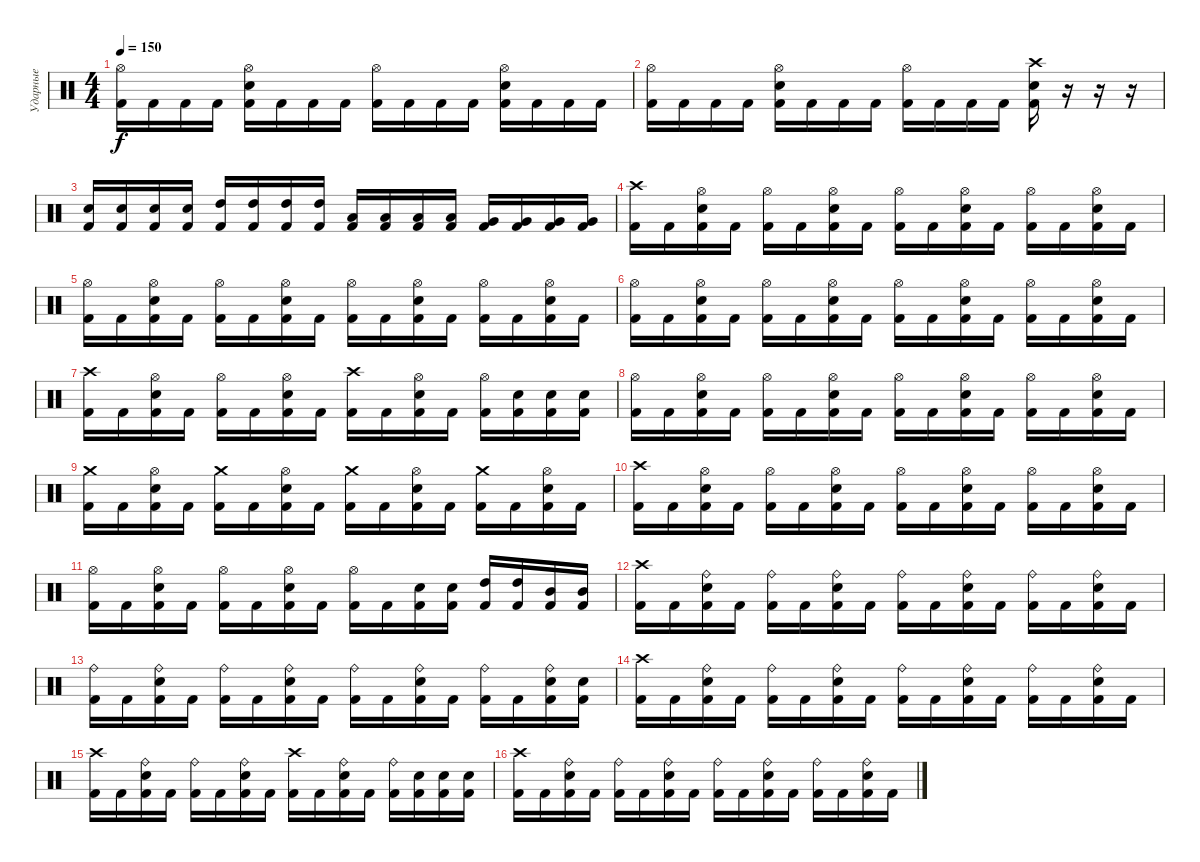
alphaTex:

\track ("Ударные" "Ударные") {instrument percussion}
\staff {score}
\articulation defaults
\ts (4 4)
\tempo 150
\clef neutral
\ks c
("Hi-Hat (open)" "Kick (hit) 2").16{dy f} "Kick (hit) 2".16 "Kick (hit) 2".16 "Kick (hit) 2".16 ("Hi-Hat (open)" "Electric Snare (hit)" "Kick (hit) 2").16 "Kick (hit) 2".16 "Kick (hit) 2".16 "Kick (hit) 2".16 ("Hi-Hat (open)" "Kick (hit) 2").16 "Kick (hit) 2".16 "Kick (hit) 2".16 "Kick (hit) 2".16 ("Hi-Hat (open)" "Electric Snare (hit)" "Kick (hit) 2").16 "Kick (hit) 2".16 "Kick (hit) 2".16 "Kick (hit) 2".16 |
("Hi-Hat (open)" "Kick (hit) 2").16 "Kick (hit) 2".16 "Kick (hit) 2".16 "Kick (hit) 2".16 ("Hi-Hat (open)" "Electric Snare (hit)" "Kick (hit) 2").16 "Kick (hit) 2".16 "Kick (hit) 2".16 "Kick (hit) 2".16 ("Hi-Hat (open)" "Kick (hit) 2").16 "Kick (hit) 2".16 "Kick (hit) 2".16 "Kick (hit) 2".16 ("Crash high (hit)" "Electric Snare (hit)" "Kick (hit) 2").16 r.16 r.16 r.16 |
("Electric Snare (hit)" "Kick (hit) 2").16 ("Electric Snare (hit)" "Kick (hit) 2").16 ("Electric Snare (hit)" "Kick (hit) 2").16 ("Electric Snare (hit)" "Kick (hit) 2").16 ("High Tom (hit)" "Kick (hit) 2").16 ("High Tom (hit)" "Kick (hit) 2").16 ("High Tom (hit)" "Kick (hit) 2").16 ("High Tom (hit)" "Kick (hit) 2").16 ("Low Tom (hit)" "Kick (hit) 2").16 ("Low Tom (hit)" "Kick (hit) 2").16 ("Low Tom (hit)" "Kick (hit) 2").16 ("Low Tom (hit)" "Kick (hit) 2").16 ("Very Low Tom (hit)" "Kick (hit) 2").16 ("Very Low Tom (hit)" "Kick (hit) 2").16 ("Very Low Tom (hit)" "Kick (hit) 2").16 ("Very Low Tom (hit)" "Kick (hit) 2").16 |
("Crash high (hit)" "Kick (hit) 2").16 "Kick (hit) 2".16 ("Hi-Hat (open)" "Electric Snare (hit)" "Kick (hit) 2").16 "Kick (hit) 2".16 ("Hi-Hat (open)" "Kick (hit) 2").16 "Kick (hit) 2".16 ("Hi-Hat (open)" "Electric Snare (hit)" "Kick (hit) 2").16 "Kick (hit) 2".16 ("Hi-Hat (open)" "Kick (hit) 2").16 "Kick (hit) 2".16 ("Hi-Hat (open)" "Electric Snare (hit)" "Kick (hit) 2").16 "Kick (hit) 2".16 ("Hi-Hat (open)" "Kick (hit) 2").16 "Kick (hit) 2".16 ("Hi-Hat (open)" "Electric Snare (hit)" "Kick (hit) 2").16 "Kick (hit) 2".16 |
("Hi-Hat (open)" "Kick (hit) 2").16 "Kick (hit) 2".16 ("Hi-Hat (open)" "Electric Snare (hit)" "Kick (hit) 2").16 "Kick (hit) 2".16 ("Hi-Hat (open)" "Kick (hit) 2").16 "Kick (hit) 2".16 ("Hi-Hat (open)" "Electric Snare (hit)" "Kick (hit) 2").16 "Kick (hit) 2".16 ("Hi-Hat (open)" "Kick (hit) 2").16 "Kick (hit) 2".16 ("Hi-Hat (open)" "Electric Snare (hit)" "Kick (hit) 2").16 "Kick (hit) 2".16 ("Hi-Hat (open)" "Kick (hit) 2").16 "Kick (hit) 2".16 ("Hi-Hat (open)" "Electric Snare (hit)" "Kick (hit) 2").16 "Kick (hit) 2".16 |
("Hi-Hat (open)" "Kick (hit) 2").16 "Kick (hit) 2".16 ("Hi-Hat (open)" "Electric Snare (hit)" "Kick (hit) 2").16 "Kick (hit) 2".16 ("Hi-Hat (open)" "Kick (hit) 2").16 "Kick (hit) 2".16 ("Hi-Hat (open)" "Electric Snare (hit)" "Kick (hit) 2").16 "Kick (hit) 2".16 ("Hi-Hat (open)" "Kick (hit) 2").16 "Kick (hit) 2".16 ("Hi-Hat (open)" "Electric Snare (hit)" "Kick (hit) 2").16 "Kick (hit) 2".16 ("Hi-Hat (open)" "Kick (hit) 2").16 "Kick (hit) 2".16 ("Hi-Hat (open)" "Electric Snare (hit)" "Kick (hit) 2").16 "Kick (hit) 2".16 |
("Crash high (hit)" "Kick (hit) 2").16 "Kick (hit) 2".16 ("Hi-Hat (open)" "Electric Snare (hit)" "Kick (hit) 2").16 "Kick (hit) 2".16 ("Hi-Hat (open)" "Kick (hit) 2").16 "Kick (hit) 2".16 ("Hi-Hat (open)" "Electric Snare (hit)" "Kick (hit) 2").16 "Kick (hit) 2".16 ("Crash high (hit)" "Kick (hit) 2").16 "Kick (hit) 2".16 ("Hi-Hat (open)" "Electric Snare (hit)" "Kick (hit) 2").16 "Kick (hit) 2".16 ("Hi-Hat (open)" "Kick (hit) 2").16 ("Electric Snare (hit)" "Kick (hit) 2").16 ("Electric Snare (hit)" "Kick (hit) 2").16 ("Electric Snare (hit)" "Kick (hit) 2").16 |
("Hi-Hat (open)" "Kick (hit) 2").16 "Kick (hit) 2".16 ("Hi-Hat (open)" "Electric Snare (hit)" "Kick (hit) 2").16 "Kick (hit) 2".16 ("Hi-Hat (open)" "Kick (hit) 2").16 "Kick (hit) 2".16 ("Hi-Hat (open)" "Electric Snare (hit)" "Kick (hit) 2").16 "Kick (hit) 2".16 ("Hi-Hat (open)" "Kick (hit) 2").16 "Kick (hit) 2".16 ("Hi-Hat (open)" "Electric Snare (hit)" "Kick (hit) 2").16 "Kick (hit) 2".16 ("Hi-Hat (open)" "Kick (hit) 2").16 "Kick (hit) 2".16 ("Hi-Hat (open)" "Electric Snare (hit)" "Kick (hit) 2").16 "Kick (hit) 2".16 |
("Crash medium (hit)" "Kick (hit) 2").16 "Kick (hit) 2".16 ("Hi-Hat (open)" "Electric Snare (hit)" "Kick (hit) 2").16 "Kick (hit) 2".16 ("Crash medium (hit)" "Kick (hit) 2").16 "Kick (hit) 2".16 ("Hi-Hat (open)" "Electric Snare (hit)" "Kick (hit) 2").16 "Kick (hit) 2".16 ("Crash medium (hit)" "Kick (hit) 2").16 "Kick (hit) 2".16 ("Hi-Hat (open)" "Electric Snare (hit)" "Kick (hit) 2").16 "Kick (hit) 2".16 ("Crash medium (hit)" "Kick (hit) 2").16 "Kick (hit) 2".16 ("Hi-Hat (open)" "Electric Snare (hit)" "Kick (hit) 2").16 "Kick (hit) 2".16 |
("Crash high (hit)" "Kick (hit) 2").16 "Kick (hit) 2".16 ("Hi-Hat (open)" "Electric Snare (hit)" "Kick (hit) 2").16 "Kick (hit) 2".16 ("Hi-Hat (open)" "Kick (hit) 2").16 "Kick (hit) 2".16 ("Hi-Hat (open)" "Electric Snare (hit)" "Kick (hit) 2").16 "Kick (hit) 2".16 ("Hi-Hat (open)" "Kick (hit) 2").16 "Kick (hit) 2".16 ("Hi-Hat (open)" "Electric Snare (hit)" "Kick (hit) 2").16 "Kick (hit) 2".16 ("Hi-Hat (open)" "Kick (hit) 2").16 "Kick (hit) 2".16 ("Hi-Hat (open)" "Electric Snare (hit)" "Kick (hit) 2").16 "Kick (hit) 2".16 |
("Hi-Hat (open)" "Kick (hit) 2").16 "Kick (hit) 2".16 ("Hi-Hat (open)" "Electric Snare (hit)" "Kick (hit) 2").16 "Kick (hit) 2".16 ("Hi-Hat (open)" "Kick (hit) 2").16 "Kick (hit) 2".16 ("Hi-Hat (open)" "Electric Snare (hit)" "Kick (hit) 2").16 "Kick (hit) 2".16 ("Hi-Hat (open)" "Kick (hit) 2").16 "Kick (hit) 2".16 ("Electric Snare (hit)" "Kick (hit) 2").16 ("Electric Snare (hit)" "Kick (hit) 2").16 ("High Tom (hit)" "Kick (hit) 2").16 ("High Tom (hit)" "Kick (hit) 2").16 ("Mid Tom (hit)" "Kick (hit) 2").16 ("Mid Tom (hit)" "Kick (hit) 2").16 |
("Crash high (hit)" "Kick (hit) 2").16 "Kick (hit) 2".16 ("Ride (bell)" "Electric Snare (hit)" "Kick (hit) 2").16 "Kick (hit) 2".16 ("Ride (bell)" "Kick (hit) 2").16 "Kick (hit) 2".16 ("Ride (bell)" "Electric Snare (hit)" "Kick (hit) 2").16 "Kick (hit) 2".16 ("Ride (bell)" "Kick (hit) 2").16 "Kick (hit) 2".16 ("Ride (bell)" "Electric Snare (hit)" "Kick (hit) 2").16 "Kick (hit) 2".16 ("Ride (bell)" "Kick (hit) 2").16 "Kick (hit) 2".16 ("Ride (bell)" "Electric Snare (hit)" "Kick (hit) 2").16 "Kick (hit) 2".16 |
("Ride (bell)" "Kick (hit) 2").16 "Kick (hit) 2".16 ("Ride (bell)" "Electric Snare (hit)" "Kick (hit) 2").16 "Kick (hit) 2".16 ("Ride (bell)" "Kick (hit) 2").16 "Kick (hit) 2".16 ("Ride (bell)" "Electric Snare (hit)" "Kick (hit) 2").16 "Kick (hit) 2".16 ("Ride (bell)" "Kick (hit) 2").16 "Kick (hit) 2".16 ("Ride (bell)" "Electric Snare (hit)" "Kick (hit) 2").16 "Kick (hit) 2".16 ("Ride (bell)" "Kick (hit) 2").16 "Kick (hit) 2".16 ("Ride (bell)" "Electric Snare (hit)" "Kick (hit) 2").16 ("Electric Snare (hit)" "Kick (hit) 2").16 |
("Crash high (hit)" "Kick (hit) 2").16 "Kick (hit) 2".16 ("Ride (bell)" "Electric Snare (hit)" "Kick (hit) 2").16 "Kick (hit) 2".16 ("Ride (bell)" "Kick (hit) 2").16 "Kick (hit) 2".16 ("Ride (bell)" "Electric Snare (hit)" "Kick (hit) 2").16 "Kick (hit) 2".16 ("Ride (bell)" "Kick (hit) 2").16 "Kick (hit) 2".16 ("Ride (bell)" "Electric Snare (hit)" "Kick (hit) 2").16 "Kick (hit) 2".16 ("Ride (bell)" "Kick (hit) 2").16 "Kick (hit) 2".16 ("Ride (bell)" "Electric Snare (hit)" "Kick (hit) 2").16 "Kick (hit) 2".16 |
("Crash high (hit)" "Kick (hit) 2").16 "Kick (hit) 2".16 ("Ride (bell)" "Electric Snare (hit)" "Kick (hit) 2").16 "Kick (hit) 2".16 ("Ride (bell)" "Kick (hit) 2").16 "Kick (hit) 2".16 ("Ride (bell)" "Electric Snare (hit)" "Kick (hit) 2").16 "Kick (hit) 2".16 ("Crash high (hit)" "Kick (hit) 2").16 "Kick (hit) 2".16 ("Ride (bell)" "Electric Snare (hit)" "Kick (hit) 2").16 "Kick (hit) 2".16 ("Ride (bell)" "Kick (hit) 2").16 ("Electric Snare (hit)" "Kick (hit) 2").16 ("Electric Snare (hit)" "Kick (hit) 2").16 ("Electric Snare (hit)" "Kick (hit) 2").16 |
("Crash high (hit)" "Kick (hit) 2").16 "Kick (hit) 2".16 ("Ride (bell)" "Electric Snare (hit)" "Kick (hit) 2").16 "Kick (hit) 2".16 ("Ride (bell)" "Kick (hit) 2").16 "Kick (hit) 2".16 ("Ride (bell)" "Electric Snare (hit)" "Kick (hit) 2").16 "Kick (hit) 2".16 ("Ride (bell)" "Kick (hit) 2").16 "Kick (hit) 2".16 ("Ride (bell)" "Electric Snare (hit)" "Kick (hit) 2").16 "Kick (hit) 2".16 ("Ride (bell)" "Kick (hit) 2").16 "Kick (hit) 2".16 ("Ride (bell)" "Electric Snare (hit)" "Kick (hit) 2").16 "Kick (hit) 2".16
